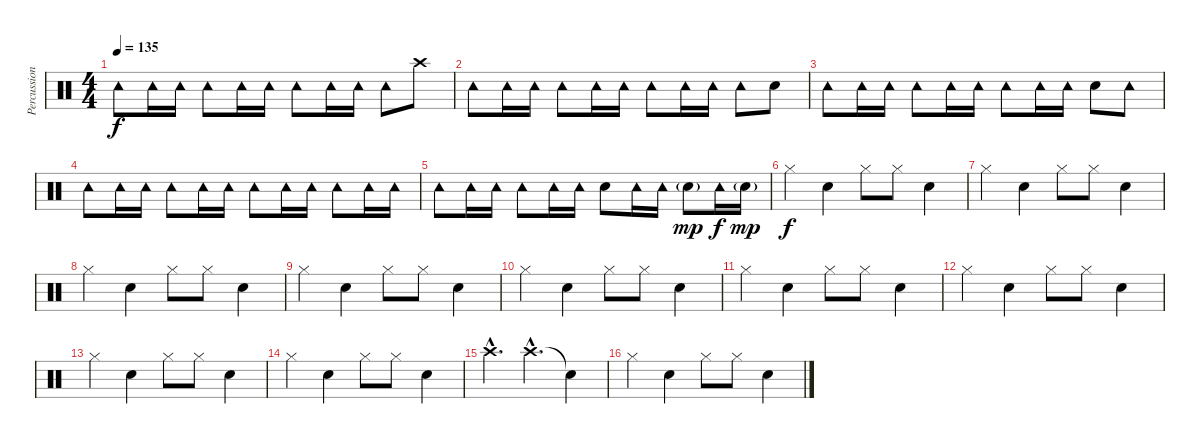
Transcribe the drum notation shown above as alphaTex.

\track ("Percussion" "Percussion") {instrument percussion}
\staff {score}
\articulation defaults
\ts (4 4)
\tempo 135
\clef neutral
\ks c "Tambourine (hit)".8{dy f} "Tambourine (hit)".16 "Tambourine (hit)".16 "Tambourine (hit)".8 "Tambourine (hit)".16 "Tambourine (hit)".16 "Tambourine (hit)".8 "Tambourine (hit)".16 "Tambourine (hit)".16 "Tambourine (hit)".8 "Crash high (hit)".8
|
"Tambourine (hit)".8 "Tambourine (hit)".16 "Tambourine (hit)".16 "Tambourine (hit)".8 "Tambourine (hit)".16 "Tambourine (hit)".16 "Tambourine (hit)".8 "Tambourine (hit)".16 "Tambourine (hit)".16 "Tambourine (hit)".8 "Electric Snare (hit)".8 |
"Tambourine (hit)".8 "Tambourine (hit)".16 "Tambourine (hit)".16 "Tambourine (hit)".8 "Tambourine (hit)".16 "Tambourine (hit)".16 "Tambourine (hit)".8 "Tambourine (hit)".16 "Tambourine (hit)".16 "Electric Snare (hit)".8 "Tambourine (hit)".8 |
"Tambourine (hit)".8 "Tambourine (hit)".16 "Tambourine (hit)".16 "Tambourine (hit)".8 "Tambourine (hit)".16 "Tambourine (hit)".16 "Tambourine (hit)".8 "Tambourine (hit)".16 "Tambourine (hit)".16 "Tambourine (hit)".8 "Tambourine (hit)".16 "Tambourine (hit)".16 |
"Tambourine (hit)".8 "Tambourine (hit)".16 "Tambourine (hit)".16 "Tambourine (hit)".8 "Tambourine (hit)".16 "Tambourine (hit)".16 "Electric Snare (hit)".8 "Tambourine (hit)".16 "Tambourine (hit)".16 "Electric Snare (hit)"{g}.8{dy mp} "Tambourine (hit)".16{dy f} "Electric Snare (hit)"{g}.16{dy mp} |
"Hi-Hat (closed)".4{dy f} "Electric Snare (hit)".4 "Hi-Hat (closed)".8 "Hi-Hat (closed)".8 "Electric Snare (hit)".4 |
"Hi-Hat (closed)".4 "Electric Snare (hit)".4 "Hi-Hat (closed)".8 "Hi-Hat (closed)".8 "Electric Snare (hit)".4 |
"Hi-Hat (closed)".4 "Electric Snare (hit)".4 "Hi-Hat (closed)".8 "Hi-Hat (closed)".8 "Electric Snare (hit)".4 |
"Hi-Hat (closed)".4 "Electric Snare (hit)".4 "Hi-Hat (closed)".8 "Hi-Hat (closed)".8 "Electric Snare (hit)".4 |
"Hi-Hat (closed)".4 "Electric Snare (hit)".4 "Hi-Hat (closed)".8 "Hi-Hat (closed)".8 "Electric Snare (hit)".4 |
"Hi-Hat (closed)".4 "Electric Snare (hit)".4 "Hi-Hat (closed)".8 "Hi-Hat (closed)".8 "Electric Snare (hit)".4 |
"Hi-Hat (closed)".4 "Electric Snare (hit)".4 "Hi-Hat (closed)".8 "Hi-Hat (closed)".8 "Electric Snare (hit)".4 |
"Hi-Hat (closed)".4 "Electric Snare (hit)".4 "Hi-Hat (closed)".8 "Hi-Hat (closed)".8 "Electric Snare (hit)".4 |
"Hi-Hat (closed)".4 "Electric Snare (hit)".4 "Hi-Hat (closed)".8 "Hi-Hat (closed)".8 "Electric Snare (hit)".4 |
"Crash high (hit)"{hac}.4{d} "Crash high (hit)"{hac}.4{d} "Snare (hit)"{t}.4 |
"Hi-Hat (closed)".4 "Electric Snare (hit)".4 "Hi-Hat (closed)".8 "Hi-Hat (closed)".8 "Electric Snare (hit)".4
